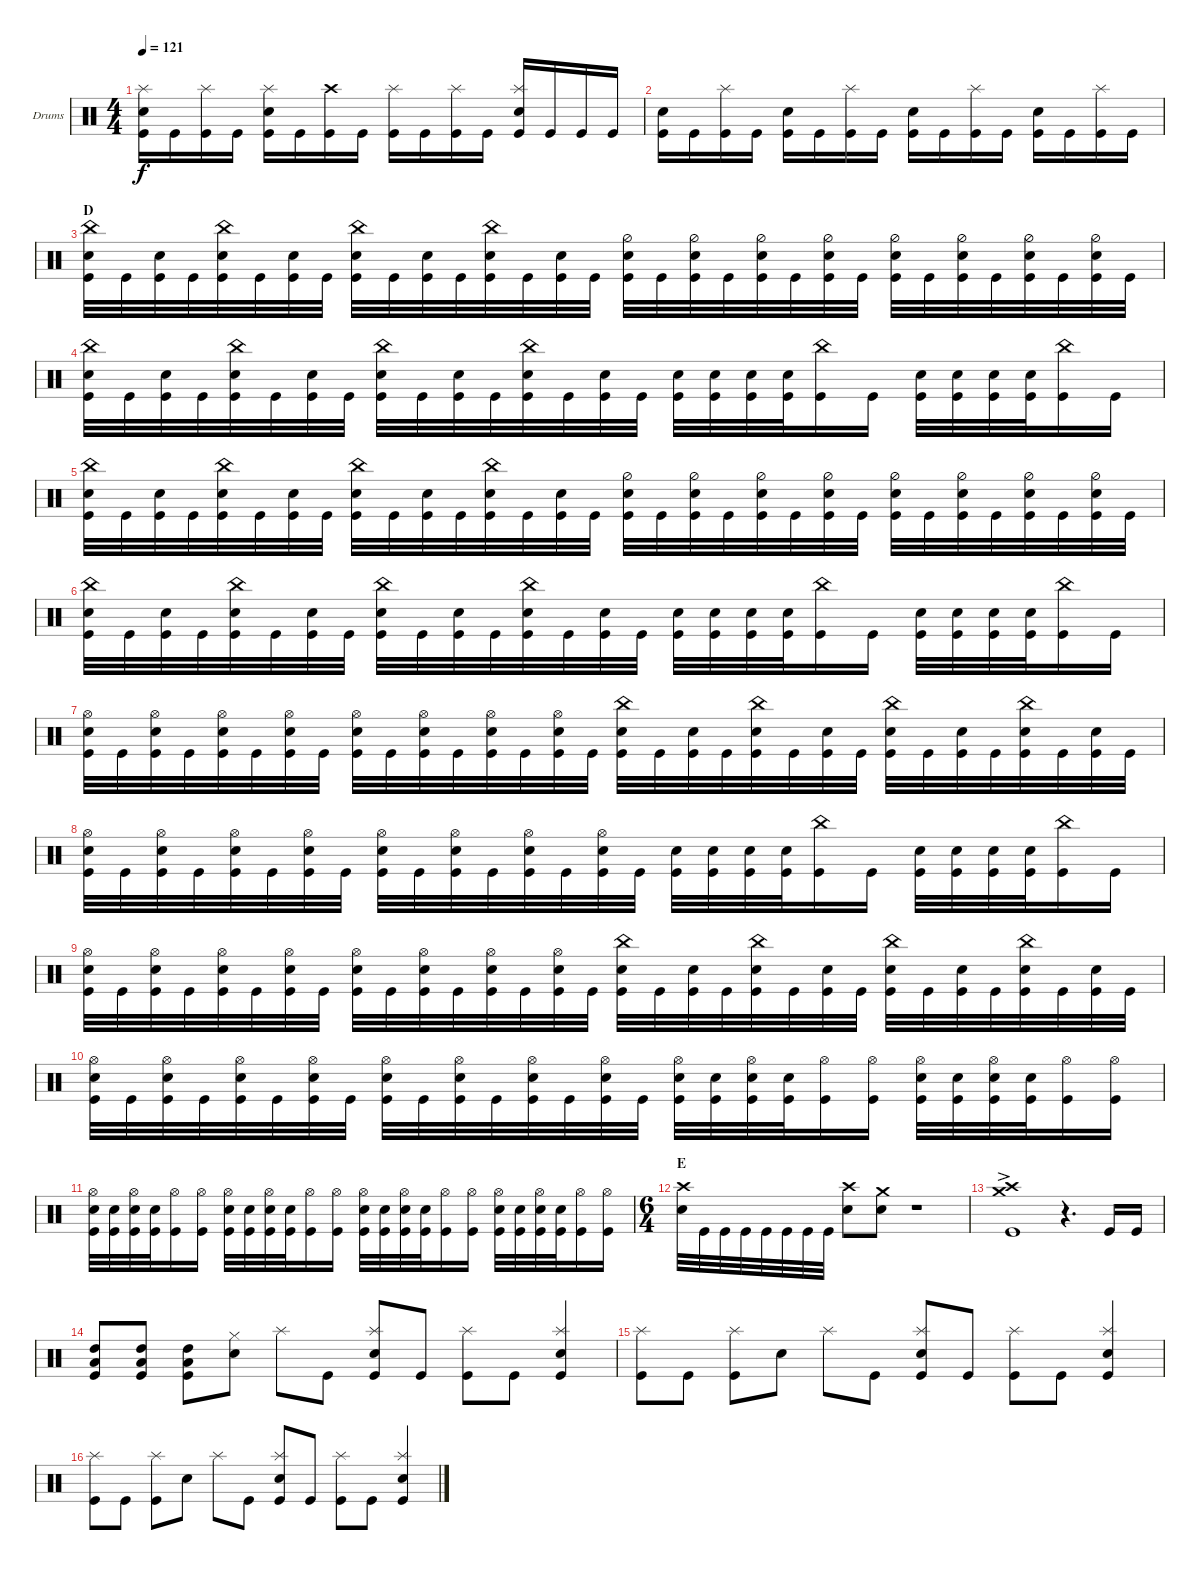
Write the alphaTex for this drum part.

\bracketExtendMode groupsimilarinstruments
\firstSystemTrackNameOrientation horizontal
\otherSystemsTrackNameOrientation horizontal
\track ("Drumkit" "Drums") {instrument percussion}
\staff {score}
\articulation defaults
\ts (4 4)
\tempo 121
\clef neutral
\ks c
("Kick (hit)" "Splash (hit)" "Snare (hit) 2").16{dy f} "Kick (hit)".16 ("Kick (hit)" "Splash (hit)").16 "Kick (hit)".16 ("Kick (hit)" "Splash (hit)" "Snare (hit) 2").16 "Kick (hit)".16 ("Kick (hit)" "Crash high (hit)").16 "Kick (hit)".16 ("Kick (hit)" "Splash (hit)").16 "Kick (hit)".16 ("Kick (hit)" "Splash (hit)").16 "Kick (hit)".16 ("Kick (hit)" "Splash (hit)" "Snare (hit) 2").16 "Kick (hit)".16 "Kick (hit)".16 "Kick (hit)".16 |
("Kick (hit)" "Snare (hit) 2").16 "Kick (hit)".16 ("Kick (hit)" "Splash (hit)").16 "Kick (hit)".16 ("Kick (hit)" "Snare (hit) 2").16 "Kick (hit)".16 ("Kick (hit)" "Splash (hit)").16 "Kick (hit)".16 ("Kick (hit)" "Snare (hit) 2").16 "Kick (hit)".16 ("Kick (hit)" "Splash (hit)").16 "Kick (hit)".16 ("Kick (hit)" "Snare (hit) 2").16 "Kick (hit)".16 ("Kick (hit)" "Splash (hit)").16 "Kick (hit)".16 |
\section ("" "D")
("Kick (hit)" "Snare (hit) 2" "China (hit)").32 "Kick (hit)".32 ("Kick (hit)" "Snare (hit) 2").32 "Kick (hit)".32 ("Kick (hit)" "Snare (hit) 2" "China (hit)").32 "Kick (hit)".32 ("Kick (hit)" "Snare (hit) 2").32 "Kick (hit)".32 ("Kick (hit)" "Snare (hit) 2" "China (hit)").32 "Kick (hit)".32 ("Kick (hit)" "Snare (hit) 2").32 "Kick (hit)".32 ("Kick (hit)" "Snare (hit) 2" "China (hit)").32 "Kick (hit)".32 ("Kick (hit)" "Snare (hit) 2").32 "Kick (hit)".32 ("Kick (hit)" "Snare (hit) 2" "Hi-Hat (half)").32 "Kick (hit)".32 ("Kick (hit)" "Snare (hit) 2" "Hi-Hat (half)").32 "Kick (hit)".32 ("Kick (hit)" "Snare (hit) 2" "Hi-Hat (half)").32 "Kick (hit)".32 ("Kick (hit)" "Snare (hit) 2" "Hi-Hat (half)").32 "Kick (hit)".32 ("Kick (hit)" "Snare (hit) 2" "Hi-Hat (half)").32 "Kick (hit)".32 ("Kick (hit)" "Snare (hit) 2" "Hi-Hat (half)").32 "Kick (hit)".32 ("Kick (hit)" "Snare (hit) 2" "Hi-Hat (half)").32 "Kick (hit)".32 ("Kick (hit)" "Snare (hit) 2" "Hi-Hat (half)").32 "Kick (hit)".32 |
("Kick (hit)" "Snare (hit) 2" "China (hit)").32 "Kick (hit)".32 ("Kick (hit)" "Snare (hit) 2").32 "Kick (hit)".32 ("Kick (hit)" "Snare (hit) 2" "China (hit)").32 "Kick (hit)".32 ("Kick (hit)" "Snare (hit) 2").32 "Kick (hit)".32 ("Kick (hit)" "Snare (hit) 2" "China (hit)").32 "Kick (hit)".32 ("Kick (hit)" "Snare (hit) 2").32 "Kick (hit)".32 ("Kick (hit)" "Snare (hit) 2" "China (hit)").32 "Kick (hit)".32 ("Kick (hit)" "Snare (hit) 2").32 "Kick (hit)".32 ("Snare (hit) 2" "Kick (hit)").32 ("Snare (hit) 2" "Kick (hit)").32 ("Snare (hit) 2" "Kick (hit)").32 ("Snare (hit) 2" "Kick (hit)").32 ("Kick (hit)" "China (hit)").16 "Kick (hit)".16 ("Snare (hit) 2" "Kick (hit)").32 ("Snare (hit) 2" "Kick (hit)").32 ("Snare (hit) 2" "Kick (hit)").32 ("Snare (hit) 2" "Kick (hit)").32 ("Kick (hit)" "China (hit)").16 "Kick (hit)".16 |
("Kick (hit)" "Snare (hit) 2" "China (hit)").32 "Kick (hit)".32 ("Kick (hit)" "Snare (hit) 2").32 "Kick (hit)".32 ("Kick (hit)" "Snare (hit) 2" "China (hit)").32 "Kick (hit)".32 ("Kick (hit)" "Snare (hit) 2").32 "Kick (hit)".32 ("Kick (hit)" "Snare (hit) 2" "China (hit)").32 "Kick (hit)".32 ("Kick (hit)" "Snare (hit) 2").32 "Kick (hit)".32 ("Kick (hit)" "Snare (hit) 2" "China (hit)").32 "Kick (hit)".32 ("Kick (hit)" "Snare (hit) 2").32 "Kick (hit)".32 ("Kick (hit)" "Snare (hit) 2" "Hi-Hat (half)").32 "Kick (hit)".32 ("Kick (hit)" "Snare (hit) 2" "Hi-Hat (half)").32 "Kick (hit)".32 ("Kick (hit)" "Snare (hit) 2" "Hi-Hat (half)").32 "Kick (hit)".32 ("Kick (hit)" "Snare (hit) 2" "Hi-Hat (half)").32 "Kick (hit)".32 ("Kick (hit)" "Snare (hit) 2" "Hi-Hat (half)").32 "Kick (hit)".32 ("Kick (hit)" "Snare (hit) 2" "Hi-Hat (half)").32 "Kick (hit)".32 ("Kick (hit)" "Snare (hit) 2" "Hi-Hat (half)").32 "Kick (hit)".32 ("Kick (hit)" "Snare (hit) 2" "Hi-Hat (half)").32 "Kick (hit)".32 |
("Kick (hit)" "Snare (hit) 2" "China (hit)").32 "Kick (hit)".32 ("Kick (hit)" "Snare (hit) 2").32 "Kick (hit)".32 ("Kick (hit)" "Snare (hit) 2" "China (hit)").32 "Kick (hit)".32 ("Kick (hit)" "Snare (hit) 2").32 "Kick (hit)".32 ("Kick (hit)" "Snare (hit) 2" "China (hit)").32 "Kick (hit)".32 ("Kick (hit)" "Snare (hit) 2").32 "Kick (hit)".32 ("Kick (hit)" "Snare (hit) 2" "China (hit)").32 "Kick (hit)".32 ("Kick (hit)" "Snare (hit) 2").32 "Kick (hit)".32 ("Snare (hit) 2" "Kick (hit)").32 ("Snare (hit) 2" "Kick (hit)").32 ("Snare (hit) 2" "Kick (hit)").32 ("Snare (hit) 2" "Kick (hit)").32 ("Kick (hit)" "China (hit)").16 "Kick (hit)".16 ("Snare (hit) 2" "Kick (hit)").32 ("Snare (hit) 2" "Kick (hit)").32 ("Snare (hit) 2" "Kick (hit)").32 ("Snare (hit) 2" "Kick (hit)").32 ("Kick (hit)" "China (hit)").16 "Kick (hit)".16 |
("Kick (hit)" "Snare (hit) 2" "Hi-Hat (open)").32 "Kick (hit)".32 ("Kick (hit)" "Snare (hit) 2" "Hi-Hat (open)").32 "Kick (hit)".32 ("Kick (hit)" "Snare (hit) 2" "Hi-Hat (open)").32 "Kick (hit)".32 ("Kick (hit)" "Snare (hit) 2" "Hi-Hat (open)").32 "Kick (hit)".32 ("Kick (hit)" "Snare (hit) 2" "Hi-Hat (open)").32 "Kick (hit)".32 ("Kick (hit)" "Snare (hit) 2" "Hi-Hat (open)").32 "Kick (hit)".32 ("Kick (hit)" "Snare (hit) 2" "Hi-Hat (open)").32 "Kick (hit)".32 ("Kick (hit)" "Snare (hit) 2" "Hi-Hat (open)").32 "Kick (hit)".32 ("Kick (hit)" "Snare (hit) 2" "China (hit)").32 "Kick (hit)".32 ("Kick (hit)" "Snare (hit) 2").32 "Kick (hit)".32 ("Kick (hit)" "Snare (hit) 2" "China (hit)").32 "Kick (hit)".32 ("Kick (hit)" "Snare (hit) 2").32 "Kick (hit)".32 ("Kick (hit)" "Snare (hit) 2" "China (hit)").32 "Kick (hit)".32 ("Kick (hit)" "Snare (hit) 2").32 "Kick (hit)".32 ("Kick (hit)" "Snare (hit) 2" "China (hit)").32 "Kick (hit)".32 ("Kick (hit)" "Snare (hit) 2").32 "Kick (hit)".32 |
("Kick (hit)" "Snare (hit) 2" "Hi-Hat (open)").32 "Kick (hit)".32 ("Kick (hit)" "Snare (hit) 2" "Hi-Hat (open)").32 "Kick (hit)".32 ("Kick (hit)" "Snare (hit) 2" "Hi-Hat (open)").32 "Kick (hit)".32 ("Kick (hit)" "Snare (hit) 2" "Hi-Hat (open)").32 "Kick (hit)".32 ("Kick (hit)" "Snare (hit) 2" "Hi-Hat (open)").32 "Kick (hit)".32 ("Kick (hit)" "Snare (hit) 2" "Hi-Hat (open)").32 "Kick (hit)".32 ("Kick (hit)" "Snare (hit) 2" "Hi-Hat (open)").32 "Kick (hit)".32 ("Kick (hit)" "Snare (hit) 2" "Hi-Hat (open)").32 "Kick (hit)".32 ("Snare (hit) 2" "Kick (hit)").32 ("Snare (hit) 2" "Kick (hit)").32 ("Snare (hit) 2" "Kick (hit)").32 ("Snare (hit) 2" "Kick (hit)").32 ("Kick (hit)" "China (hit)").16 "Kick (hit)".16 ("Snare (hit) 2" "Kick (hit)").32 ("Snare (hit) 2" "Kick (hit)").32 ("Snare (hit) 2" "Kick (hit)").32 ("Snare (hit) 2" "Kick (hit)").32 ("Kick (hit)" "China (hit)").16 "Kick (hit)".16 |
("Kick (hit)" "Snare (hit) 2" "Hi-Hat (open)").32 "Kick (hit)".32 ("Kick (hit)" "Snare (hit) 2" "Hi-Hat (open)").32 "Kick (hit)".32 ("Kick (hit)" "Snare (hit) 2" "Hi-Hat (open)").32 "Kick (hit)".32 ("Kick (hit)" "Snare (hit) 2" "Hi-Hat (open)").32 "Kick (hit)".32 ("Kick (hit)" "Snare (hit) 2" "Hi-Hat (open)").32 "Kick (hit)".32 ("Kick (hit)" "Snare (hit) 2" "Hi-Hat (open)").32 "Kick (hit)".32 ("Kick (hit)" "Snare (hit) 2" "Hi-Hat (open)").32 "Kick (hit)".32 ("Kick (hit)" "Snare (hit) 2" "Hi-Hat (open)").32 "Kick (hit)".32 ("Kick (hit)" "Snare (hit) 2" "China (hit)").32 "Kick (hit)".32 ("Kick (hit)" "Snare (hit) 2").32 "Kick (hit)".32 ("Kick (hit)" "Snare (hit) 2" "China (hit)").32 "Kick (hit)".32 ("Kick (hit)" "Snare (hit) 2").32 "Kick (hit)".32 ("Kick (hit)" "Snare (hit) 2" "China (hit)").32 "Kick (hit)".32 ("Kick (hit)" "Snare (hit) 2").32 "Kick (hit)".32 ("Kick (hit)" "Snare (hit) 2" "China (hit)").32 "Kick (hit)".32 ("Kick (hit)" "Snare (hit) 2").32 "Kick (hit)".32 |
("Kick (hit)" "Snare (hit) 2" "Hi-Hat (open)").32 "Kick (hit)".32 ("Kick (hit)" "Snare (hit) 2" "Hi-Hat (open)").32 "Kick (hit)".32 ("Kick (hit)" "Snare (hit) 2" "Hi-Hat (open)").32 "Kick (hit)".32 ("Kick (hit)" "Snare (hit) 2" "Hi-Hat (open)").32 "Kick (hit)".32 ("Kick (hit)" "Snare (hit) 2" "Hi-Hat (open)").32 "Kick (hit)".32 ("Kick (hit)" "Snare (hit) 2" "Hi-Hat (open)").32 "Kick (hit)".32 ("Kick (hit)" "Snare (hit) 2" "Hi-Hat (open)").32 "Kick (hit)".32 ("Kick (hit)" "Snare (hit) 2" "Hi-Hat (open)").32 "Kick (hit)".32 ("Snare (hit) 2" "Kick (hit)" "Hi-Hat (open)").32 ("Snare (hit) 2" "Kick (hit)").32 ("Snare (hit) 2" "Kick (hit)" "Hi-Hat (open)").32 ("Snare (hit) 2" "Kick (hit)").32 ("Kick (hit)" "Hi-Hat (open)").16 ("Kick (hit)" "Hi-Hat (open)").16 ("Snare (hit) 2" "Kick (hit)" "Hi-Hat (open)").32 ("Snare (hit) 2" "Kick (hit)").32 ("Snare (hit) 2" "Kick (hit)" "Hi-Hat (open)").32 ("Snare (hit) 2" "Kick (hit)").32 ("Kick (hit)" "Hi-Hat (open)").16 ("Kick (hit)" "Hi-Hat (open)").16 |
("Snare (hit) 2" "Kick (hit)" "Hi-Hat (open)").32 ("Snare (hit) 2" "Kick (hit)").32 ("Snare (hit) 2" "Kick (hit)" "Hi-Hat (open)").32 ("Snare (hit) 2" "Kick (hit)").32 ("Kick (hit)" "Hi-Hat (open)").16 ("Kick (hit)" "Hi-Hat (open)").16 ("Snare (hit) 2" "Kick (hit)" "Hi-Hat (open)").32 ("Snare (hit) 2" "Kick (hit)").32 ("Snare (hit) 2" "Kick (hit)" "Hi-Hat (open)").32 ("Snare (hit) 2" "Kick (hit)").32 ("Kick (hit)" "Hi-Hat (open)").16 ("Kick (hit)" "Hi-Hat (open)").16 ("Snare (hit) 2" "Kick (hit)" "Hi-Hat (open)").32 ("Snare (hit) 2" "Kick (hit)").32 ("Snare (hit) 2" "Kick (hit)" "Hi-Hat (open)").32 ("Snare (hit) 2" "Kick (hit)").32 ("Kick (hit)" "Hi-Hat (open)").16 ("Kick (hit)" "Hi-Hat (open)").16 ("Snare (hit) 2" "Kick (hit)" "Hi-Hat (open)").32 ("Snare (hit) 2" "Kick (hit)").32 ("Snare (hit) 2" "Kick (hit)" "Hi-Hat (open)").32 ("Snare (hit) 2" "Kick (hit)").32 ("Kick (hit)" "Hi-Hat (open)").16 ("Kick (hit)" "Hi-Hat (open)").16 |
\ts (6 4)
\section ("" "E")
("Snare (hit) 2" "Crash high (hit)").32 "Kick (hit)".32 "Kick (hit)".32 "Kick (hit)".32 "Kick (hit)".32 "Kick (hit)".32 "Kick (hit)".32 "Kick (hit)".32 ("Snare (hit) 2" "Crash high (hit)").8 ("Snare (hit) 2" "Crash medium (hit)").8 r.1 |
("Kick (hit)"{ac} "Crash high (hit)"{ac} "Crash medium (hit)"{ac}).1 r.4{d} "Kick (hit)".16 "Kick (hit)".16 |
("Kick (hit)" "Low Tom (hit)" "High Tom (hit)").8 ("Kick (hit)" "Low Tom (hit)" "High Tom (hit)").8 ("Kick (hit)" "Low Tom (hit)" "High Tom (hit)").8 ("Snare (hit) 2" "Hi-Hat (closed)").8 "Splash (hit)".8 "Kick (hit)".8 ("Kick (hit)" "Snare (hit) 2" "Splash (hit)").8 "Kick (hit)".8 ("Splash (hit)" "Kick (hit)").8 "Kick (hit)".8 ("Kick (hit)" "Snare (hit) 2" "Splash (hit)").4 |
("Kick (hit)" "Splash (hit)").8 "Kick (hit)".8 ("Kick (hit)" "Splash (hit)").8 "Snare (hit) 2".8 "Splash (hit)".8 "Kick (hit)".8 ("Kick (hit)" "Snare (hit) 2" "Splash (hit)").8 "Kick (hit)".8 ("Splash (hit)" "Kick (hit)").8 "Kick (hit)".8 ("Kick (hit)" "Snare (hit) 2" "Splash (hit)").4 |
("Kick (hit)" "Splash (hit)").8 "Kick (hit)".8 ("Kick (hit)" "Splash (hit)").8 "Snare (hit) 2".8 "Splash (hit)".8 "Kick (hit)".8 ("Kick (hit)" "Snare (hit) 2" "Splash (hit)").8 "Kick (hit)".8 ("Splash (hit)" "Kick (hit)").8 "Kick (hit)".8 ("Kick (hit)" "Snare (hit) 2" "Splash (hit)").4
